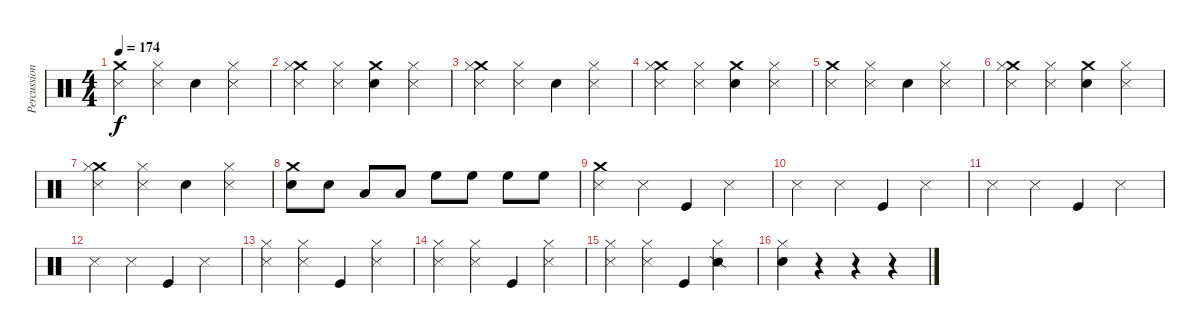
\track ("Percussion" "Percussion") {instrument percussion}
\staff {score}
\articulation defaults
\ts (4 4)
\tempo 174
\clef neutral
\ks c
("Crash medium (hit)" "Metronome (hit)").4{dy f} ("Hi-Hat (closed)" "Metronome (hit)").4 "Electric Snare (hit)".4 ("Hi-Hat (closed)" "Metronome (hit)").4 |
("Crash medium (hit)" "Hi-Hat (closed)" "Metronome (hit)").4 ("Hi-Hat (closed)" "Metronome (hit)").4 ("Crash medium (hit)" "Electric Snare (hit)").4 ("Hi-Hat (closed)" "Metronome (hit)").4 |
("Crash medium (hit)" "Hi-Hat (closed)" "Metronome (hit)").4 ("Hi-Hat (closed)" "Metronome (hit)").4 "Electric Snare (hit)".4 ("Hi-Hat (closed)" "Metronome (hit)").4 |
("Crash medium (hit)" "Hi-Hat (closed)" "Metronome (hit)").4 ("Hi-Hat (closed)" "Metronome (hit)").4 ("Crash medium (hit)" "Electric Snare (hit)").4 ("Hi-Hat (closed)" "Metronome (hit)").4 |
("Crash medium (hit)" "Metronome (hit)").4 ("Hi-Hat (closed)" "Metronome (hit)").4 "Electric Snare (hit)".4 ("Hi-Hat (closed)" "Metronome (hit)").4 |
("Crash medium (hit)" "Hi-Hat (closed)" "Metronome (hit)").4 ("Hi-Hat (closed)" "Metronome (hit)").4 ("Crash medium (hit)" "Electric Snare (hit)").4 ("Hi-Hat (closed)" "Metronome (hit)").4 |
("Crash medium (hit)" "Hi-Hat (closed)" "Metronome (hit)").4 ("Hi-Hat (closed)" "Metronome (hit)").4 "Electric Snare (hit)".4 ("Hi-Hat (closed)" "Metronome (hit)").4 |
("Crash medium (hit)" "Electric Snare (hit)").8 "Electric Snare (hit)".8 "Low Tom (hit)".8 "Low Tom (hit)".8 "High Floor Tom (hit)".8 "High Floor Tom (hit)".8 "High Floor Tom (hit)".8 "High Floor Tom (hit)".8 |
("Crash medium (hit)" "Metronome (hit)").4 "Metronome (hit)".4 "Kick (hit)".4 "Metronome (hit)".4 |
"Metronome (hit)".4 "Metronome (hit)".4 "Kick (hit)".4 "Metronome (hit)".4 |
"Metronome (hit)".4 "Metronome (hit)".4 "Kick (hit)".4 "Metronome (hit)".4 |
"Metronome (hit)".4 "Metronome (hit)".4 "Kick (hit)".4 "Metronome (hit)".4 |
("Hi-Hat (closed)" "Metronome (hit)").4 ("Hi-Hat (closed)" "Metronome (hit)").4 "Kick (hit)".4 ("Hi-Hat (closed)" "Metronome (hit)").4 |
("Hi-Hat (closed)" "Metronome (hit)").4 ("Hi-Hat (closed)" "Metronome (hit)").4 "Kick (hit)".4 ("Hi-Hat (closed)" "Metronome (hit)").4 |
("Hi-Hat (closed)" "Metronome (hit)").4 ("Hi-Hat (closed)" "Metronome (hit)").4 "Kick (hit)".4 ("Hi-Hat (closed)" "Snare (side stick) 2").4 |
("Hi-Hat (closed)" "Electric Snare (hit)").4 r.4 r.4 r.4
